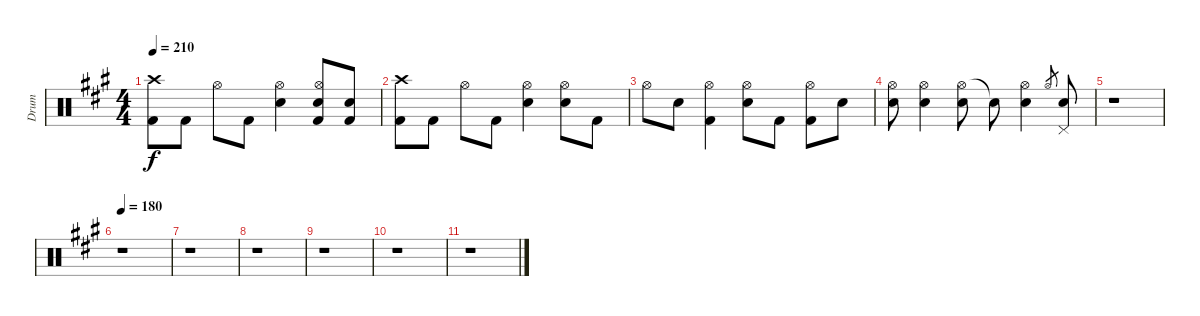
\track ("Drum" "Drum") {instrument percussion}
\staff {score}
\articulation defaults
\ts (4 4)
\tempo 210
\clef neutral
\ks a
("Crash high (hit)" "Kick (hit) 2").8{dy f} "Kick (hit) 2".8 "Hi-Hat (open)".8 "Kick (hit) 2".8 ("Hi-Hat (open)" "Electric Snare (hit)").4 ("Hi-Hat (open)" "Electric Snare (hit)" "Kick (hit) 2").8 ("Electric Snare (hit)" "Kick (hit) 2").8 |
("Crash high (hit)" "Kick (hit) 2").8 "Kick (hit) 2".8 "Hi-Hat (open)".8 "Kick (hit) 2".8 ("Hi-Hat (open)" "Electric Snare (hit)").4 ("Hi-Hat (open)" "Electric Snare (hit)").8 "Kick (hit) 2".8 |
"Hi-Hat (open)".8 "Electric Snare (hit)".8 ("Hi-Hat (open)" "Kick (hit) 2").4 ("Hi-Hat (open)" "Electric Snare (hit)").8 "Kick (hit) 2".8 ("Hi-Hat (open)" "Kick (hit) 2").8 "Electric Snare (hit)".8 |
("Hi-Hat (open)" "Electric Snare (hit)").8 ("Hi-Hat (open)" "Electric Snare (hit)").4 ("Hi-Hat (open)" "Electric Snare (hit)").8 "Snare (hit)"{t}.8 ("Hi-Hat (open)" "Electric Snare (hit)").4 "Hi-Hat (open)".8{gr} ("Pedal Hi-Hat (hit)" "Electric Snare (hit)").8 |
r.1 |
\tempo 180
r.1 |
r.1 |
r.1 |
r.1 |
r.1 |
r.1
